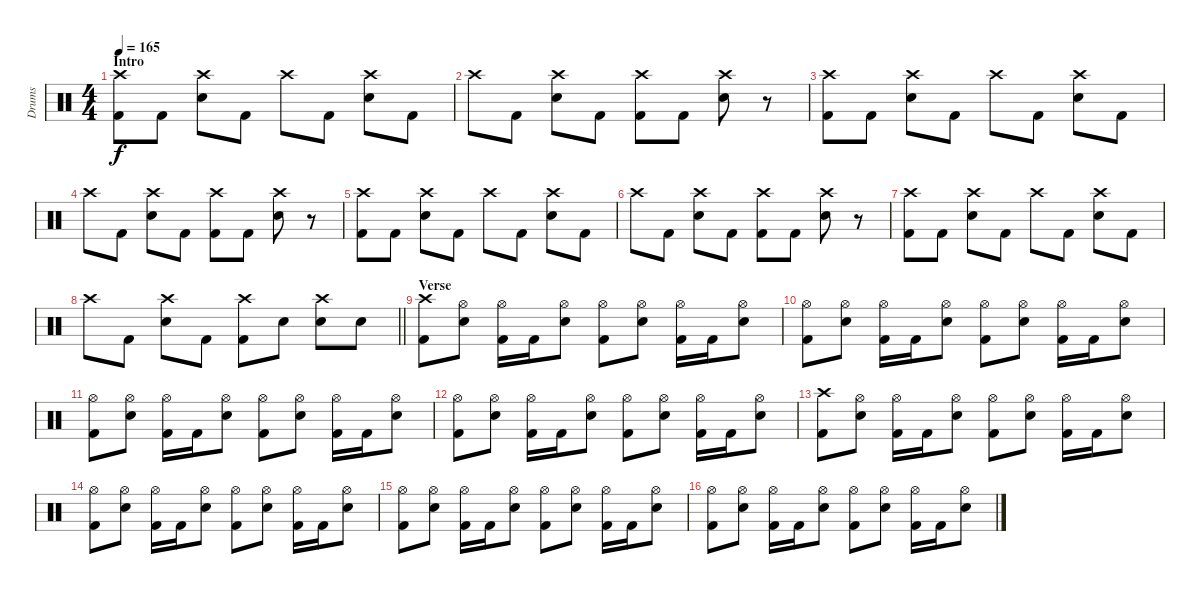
\track ("Drums" "Drums") {instrument percussion}
\staff {score}
\articulation defaults
\ts (4 4)
\section ("" "Intro")
\tempo 165
\clef neutral
\ks c
("Crash high (hit)" "Kick (hit) 2").8{dy f} "Kick (hit) 2".8 ("Crash high (hit)" "Electric Snare (hit)").8 "Kick (hit) 2".8 "Crash high (hit)".8 "Kick (hit) 2".8 ("Crash high (hit)" "Electric Snare (hit)").8 "Kick (hit) 2".8 |
"Crash high (hit)".8 "Kick (hit) 2".8 ("Crash high (hit)" "Electric Snare (hit)").8 "Kick (hit) 2".8 ("Crash high (hit)" "Kick (hit) 2").8 "Kick (hit) 2".8 ("Crash high (hit)" "Electric Snare (hit)").8 r.8 |
("Crash high (hit)" "Kick (hit) 2").8 "Kick (hit) 2".8 ("Crash high (hit)" "Electric Snare (hit)").8 "Kick (hit) 2".8 "Crash high (hit)".8 "Kick (hit) 2".8 ("Crash high (hit)" "Electric Snare (hit)").8 "Kick (hit) 2".8 |
"Crash high (hit)".8 "Kick (hit) 2".8 ("Crash high (hit)" "Electric Snare (hit)").8 "Kick (hit) 2".8 ("Crash high (hit)" "Kick (hit) 2").8 "Kick (hit) 2".8 ("Crash high (hit)" "Electric Snare (hit)").8 r.8 |
("Crash high (hit)" "Kick (hit) 2").8 "Kick (hit) 2".8 ("Crash high (hit)" "Electric Snare (hit)").8 "Kick (hit) 2".8 "Crash high (hit)".8 "Kick (hit) 2".8 ("Crash high (hit)" "Electric Snare (hit)").8 "Kick (hit) 2".8 |
"Crash high (hit)".8 "Kick (hit) 2".8 ("Crash high (hit)" "Electric Snare (hit)").8 "Kick (hit) 2".8 ("Crash high (hit)" "Kick (hit) 2").8 "Kick (hit) 2".8 ("Crash high (hit)" "Electric Snare (hit)").8 r.8 |
("Crash high (hit)" "Kick (hit) 2").8 "Kick (hit) 2".8 ("Crash high (hit)" "Electric Snare (hit)").8 "Kick (hit) 2".8 "Crash high (hit)".8 "Kick (hit) 2".8 ("Crash high (hit)" "Electric Snare (hit)").8 "Kick (hit) 2".8 |
\barLineRight lightlight "Crash high (hit)".8 "Kick (hit) 2".8
("Crash high (hit)" "Electric Snare (hit)").8 "Kick (hit) 2".8 ("Crash high (hit)" "Kick (hit) 2").8 "Electric Snare (hit)".8 ("Crash high (hit)" "Electric Snare (hit)").8 "Electric Snare (hit)".8 |
\section ("" "Verse")
("Crash high (hit)" "Kick (hit) 2").8 ("Hi-Hat (open)" "Electric Snare (hit)").8 ("Hi-Hat (open)" "Kick (hit) 2").16 "Kick (hit) 2".16 ("Hi-Hat (open)" "Electric Snare (hit)").8 ("Hi-Hat (open)" "Kick (hit) 2").8 ("Hi-Hat (open)" "Electric Snare (hit)").8 ("Hi-Hat (open)" "Kick (hit) 2").16 "Kick (hit) 2".16 ("Hi-Hat (open)" "Electric Snare (hit)").8 |
("Hi-Hat (open)" "Kick (hit) 2").8 ("Hi-Hat (open)" "Electric Snare (hit)").8 ("Hi-Hat (open)" "Kick (hit) 2").16 "Kick (hit) 2".16 ("Hi-Hat (open)" "Electric Snare (hit)").8 ("Hi-Hat (open)" "Kick (hit) 2").8 ("Hi-Hat (open)" "Electric Snare (hit)").8 ("Hi-Hat (open)" "Kick (hit) 2").16 "Kick (hit) 2".16 ("Hi-Hat (open)" "Electric Snare (hit)").8 |
("Hi-Hat (open)" "Kick (hit) 2").8 ("Hi-Hat (open)" "Electric Snare (hit)").8 ("Hi-Hat (open)" "Kick (hit) 2").16 "Kick (hit) 2".16 ("Hi-Hat (open)" "Electric Snare (hit)").8 ("Hi-Hat (open)" "Kick (hit) 2").8 ("Hi-Hat (open)" "Electric Snare (hit)").8 ("Hi-Hat (open)" "Kick (hit) 2").16 "Kick (hit) 2".16 ("Hi-Hat (open)" "Electric Snare (hit)").8 |
("Hi-Hat (open)" "Kick (hit) 2").8 ("Hi-Hat (open)" "Electric Snare (hit)").8 ("Hi-Hat (open)" "Kick (hit) 2").16 "Kick (hit) 2".16 ("Hi-Hat (open)" "Electric Snare (hit)").8 ("Hi-Hat (open)" "Kick (hit) 2").8 ("Hi-Hat (open)" "Electric Snare (hit)").8 ("Hi-Hat (open)" "Kick (hit) 2").16 "Kick (hit) 2".16 ("Hi-Hat (open)" "Electric Snare (hit)").8 |
("Crash high (hit)" "Kick (hit) 2").8 ("Hi-Hat (open)" "Electric Snare (hit)").8 ("Hi-Hat (open)" "Kick (hit) 2").16 "Kick (hit) 2".16 ("Hi-Hat (open)" "Electric Snare (hit)").8 ("Hi-Hat (open)" "Kick (hit) 2").8 ("Hi-Hat (open)" "Electric Snare (hit)").8 ("Hi-Hat (open)" "Kick (hit) 2").16 "Kick (hit) 2".16 ("Hi-Hat (open)" "Electric Snare (hit)").8 |
("Hi-Hat (open)" "Kick (hit) 2").8 ("Hi-Hat (open)" "Electric Snare (hit)").8 ("Hi-Hat (open)" "Kick (hit) 2").16 "Kick (hit) 2".16 ("Hi-Hat (open)" "Electric Snare (hit)").8 ("Hi-Hat (open)" "Kick (hit) 2").8 ("Hi-Hat (open)" "Electric Snare (hit)").8 ("Hi-Hat (open)" "Kick (hit) 2").16 "Kick (hit) 2".16 ("Hi-Hat (open)" "Electric Snare (hit)").8 |
("Hi-Hat (open)" "Kick (hit) 2").8 ("Hi-Hat (open)" "Electric Snare (hit)").8 ("Hi-Hat (open)" "Kick (hit) 2").16 "Kick (hit) 2".16 ("Hi-Hat (open)" "Electric Snare (hit)").8 ("Hi-Hat (open)" "Kick (hit) 2").8 ("Hi-Hat (open)" "Electric Snare (hit)").8 ("Hi-Hat (open)" "Kick (hit) 2").16 "Kick (hit) 2".16 ("Hi-Hat (open)" "Electric Snare (hit)").8 |
("Hi-Hat (open)" "Kick (hit) 2").8 ("Hi-Hat (open)" "Electric Snare (hit)").8 ("Hi-Hat (open)" "Kick (hit) 2").16 "Kick (hit) 2".16 ("Hi-Hat (open)" "Electric Snare (hit)").8 ("Hi-Hat (open)" "Kick (hit) 2").8 ("Hi-Hat (open)" "Electric Snare (hit)").8 ("Hi-Hat (open)" "Kick (hit) 2").16 "Kick (hit) 2".16 ("Hi-Hat (open)" "Electric Snare (hit)").8
